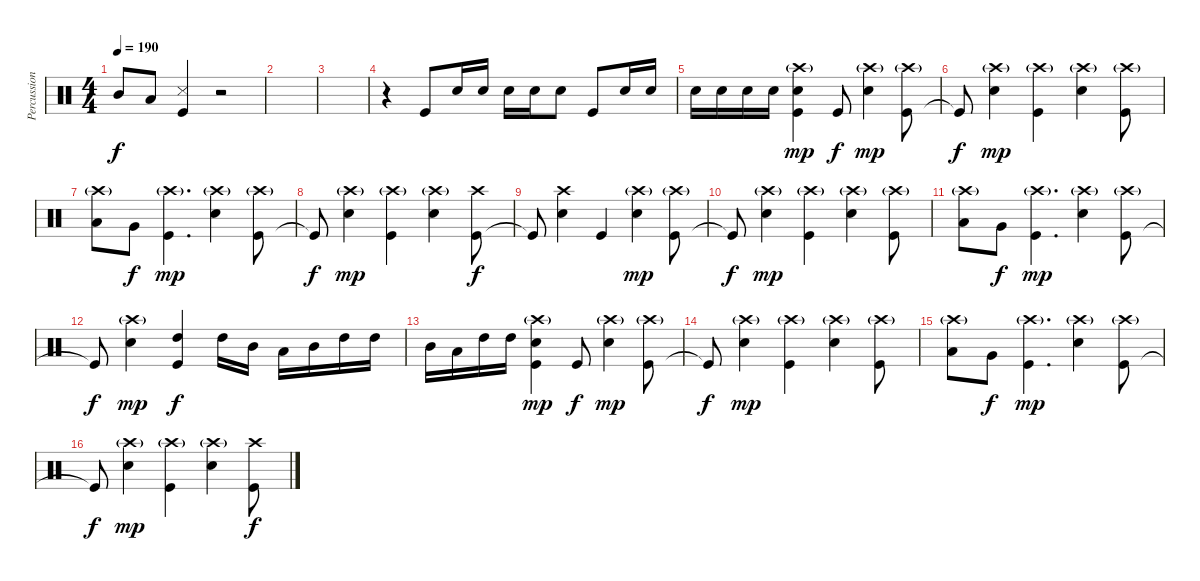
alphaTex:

\track ("Percussion" "Percussion") {instrument percussion}
\staff {score}
\articulation defaults
\ts (4 4)
\tempo 190
\clef neutral
\ks c "Mid Tom (hit)".8{dy f} "Low Tom (hit)".8
("Kick (hit)" "Snare (side stick) 3").4 r.2 |
|
|
r.4 "Kick (hit)".8 "Electric Snare (hit)".16 "Electric Snare (hit)".16 "Electric Snare (hit)".16 "Electric Snare (hit)".16 "Electric Snare (hit)".8 "Kick (hit)".8 "Electric Snare (hit)".16 "Electric Snare (hit)".16 |
"Electric Snare (hit)".16 "Electric Snare (hit)".16 "Electric Snare (hit)".16 "Electric Snare (hit)".16 ("Crash high (hit)"{g} "Kick (hit)" "Electric Snare (hit)").4{dy mp} "Kick (hit)".8{dy f} ("Electric Snare (hit)" "Crash high (hit)"{g}).4{dy mp} ("Kick (hit)" "Crash high (hit)"{g}).8 |
"Kick (hit)"{t}.8{dy f} ("Electric Snare (hit)" "Crash high (hit)"{g}).4{dy mp} ("Kick (hit)" "Crash high (hit)"{g}).4 ("Electric Snare (hit)" "Crash high (hit)"{g}).4 ("Kick (hit)" "Crash high (hit)"{g}).8 |
("Low Tom (hit)" "Crash high (hit)"{g}).8 "Very Low Tom (hit)".8{dy f} ("Kick (hit)" "Crash high (hit)"{g}).4{d dy mp} ("Electric Snare (hit)" "Crash high (hit)"{g}).4 ("Kick (hit)" "Crash high (hit)"{g}).8 |
"Kick (hit)"{t}.8{dy f} ("Electric Snare (hit)" "Crash high (hit)"{g}).4{dy mp} ("Kick (hit)" "Crash high (hit)"{g}).4 ("Electric Snare (hit)" "Crash high (hit)"{g}).4 ("Kick (hit)" "Crash high (hit)").8{dy f} |
"Kick (hit)"{t}.8 ("Electric Snare (hit)" "Crash high (hit)").4 "Kick (hit)".4 ("Electric Snare (hit)" "Crash high (hit)"{g}).4{dy mp} ("Kick (hit)" "Crash high (hit)"{g}).8 |
"Kick (hit)"{t}.8{dy f} ("Electric Snare (hit)" "Crash high (hit)"{g}).4{dy mp} ("Kick (hit)" "Crash high (hit)"{g}).4 ("Electric Snare (hit)" "Crash high (hit)"{g}).4 ("Kick (hit)" "Crash high (hit)"{g}).8 |
("Low Tom (hit)" "Crash high (hit)"{g}).8 "Very Low Tom (hit)".8{dy f} ("Kick (hit)" "Crash high (hit)"{g}).4{d dy mp} ("Electric Snare (hit)" "Crash high (hit)"{g}).4 ("Kick (hit)" "Crash high (hit)"{g}).8 |
"Kick (hit)"{t}.8{dy f} ("Electric Snare (hit)" "Crash high (hit)"{g}).4{dy mp} ("High Tom (hit)" "Kick (hit)").4{dy f} "High Tom (hit)".16 "Mid Tom (hit)".16 "Low Tom (hit)".16 "Mid Tom (hit)".16 "High Tom (hit)".16 "High Tom (hit)".16 |
"Mid Tom (hit)".16 "Low Tom (hit)".16 "High Tom (hit)".16 "High Tom (hit)".16 ("Crash high (hit)"{g} "Kick (hit)" "Electric Snare (hit)").4{dy mp} "Kick (hit)".8{dy f} ("Electric Snare (hit)" "Crash high (hit)"{g}).4{dy mp} ("Kick (hit)" "Crash high (hit)"{g}).8 |
"Kick (hit)"{t}.8{dy f} ("Electric Snare (hit)" "Crash high (hit)"{g}).4{dy mp} ("Kick (hit)" "Crash high (hit)"{g}).4 ("Electric Snare (hit)" "Crash high (hit)"{g}).4 ("Kick (hit)" "Crash high (hit)"{g}).8 |
("Low Tom (hit)" "Crash high (hit)"{g}).8 "Very Low Tom (hit)".8{dy f} ("Kick (hit)" "Crash high (hit)"{g}).4{d dy mp} ("Electric Snare (hit)" "Crash high (hit)"{g}).4 ("Kick (hit)" "Crash high (hit)"{g}).8 |
"Kick (hit)"{t}.8{dy f} ("Electric Snare (hit)" "Crash high (hit)"{g}).4{dy mp} ("Kick (hit)" "Crash high (hit)"{g}).4 ("Electric Snare (hit)" "Crash high (hit)"{g}).4 ("Kick (hit)" "Crash high (hit)").8{dy f}
